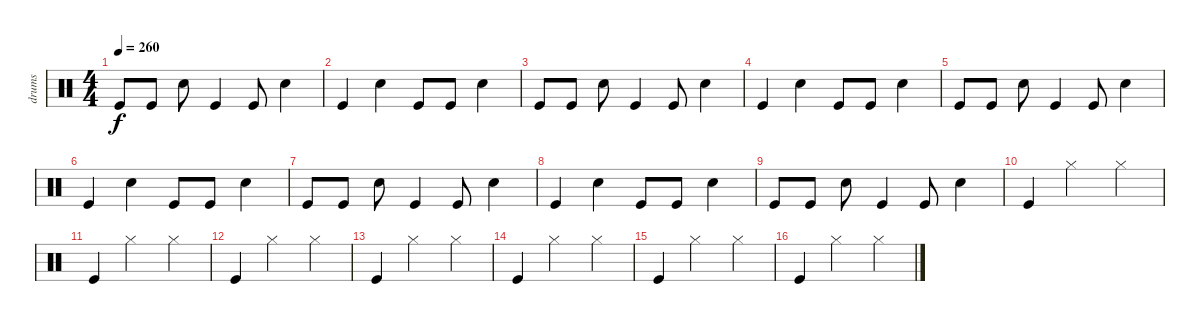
\track ("drums" "drums") {instrument percussion}
\staff {score}
\articulation defaults
\ts (4 4)
\tempo 260
\clef neutral
\ks c "Kick (hit)".8{dy f} "Kick (hit)".8 "Snare (hit) 2".8 "Kick (hit)".4 "Kick (hit)".8 "Snare (hit) 2".4
|
"Kick (hit)".4 "Snare (hit) 2".4 "Kick (hit)".8 "Kick (hit)".8 "Snare (hit) 2".4 |
"Kick (hit)".8 "Kick (hit)".8 "Snare (hit) 2".8 "Kick (hit)".4 "Kick (hit)".8 "Snare (hit) 2".4 |
"Kick (hit)".4 "Snare (hit) 2".4 "Kick (hit)".8 "Kick (hit)".8 "Snare (hit) 2".4 |
"Kick (hit)".8 "Kick (hit)".8 "Snare (hit) 2".8 "Kick (hit)".4 "Kick (hit)".8 "Snare (hit) 2".4 |
"Kick (hit)".4 "Snare (hit) 2".4 "Kick (hit)".8 "Kick (hit)".8 "Snare (hit) 2".4 |
"Kick (hit)".8 "Kick (hit)".8 "Snare (hit) 2".8 "Kick (hit)".4 "Kick (hit)".8 "Snare (hit) 2".4 |
"Kick (hit)".4 "Snare (hit) 2".4 "Kick (hit)".8 "Kick (hit)".8 "Snare (hit) 2".4 |
"Kick (hit)".8 "Kick (hit)".8 "Snare (hit) 2".8 "Kick (hit)".4 "Kick (hit)".8 "Snare (hit) 2".4 |
"Kick (hit)".4 "Hi-Hat (closed)".2 "Hi-Hat (closed)".4 |
"Kick (hit)".4 "Hi-Hat (closed)".2 "Hi-Hat (closed)".4 |
"Kick (hit)".4 "Hi-Hat (closed)".2 "Hi-Hat (closed)".4 |
"Kick (hit)".4 "Hi-Hat (closed)".2 "Hi-Hat (closed)".4 |
"Kick (hit)".4 "Hi-Hat (closed)".2 "Hi-Hat (closed)".4 |
"Kick (hit)".4 "Hi-Hat (closed)".2 "Hi-Hat (closed)".4 |
"Kick (hit)".4 "Hi-Hat (closed)".2 "Hi-Hat (closed)".4
